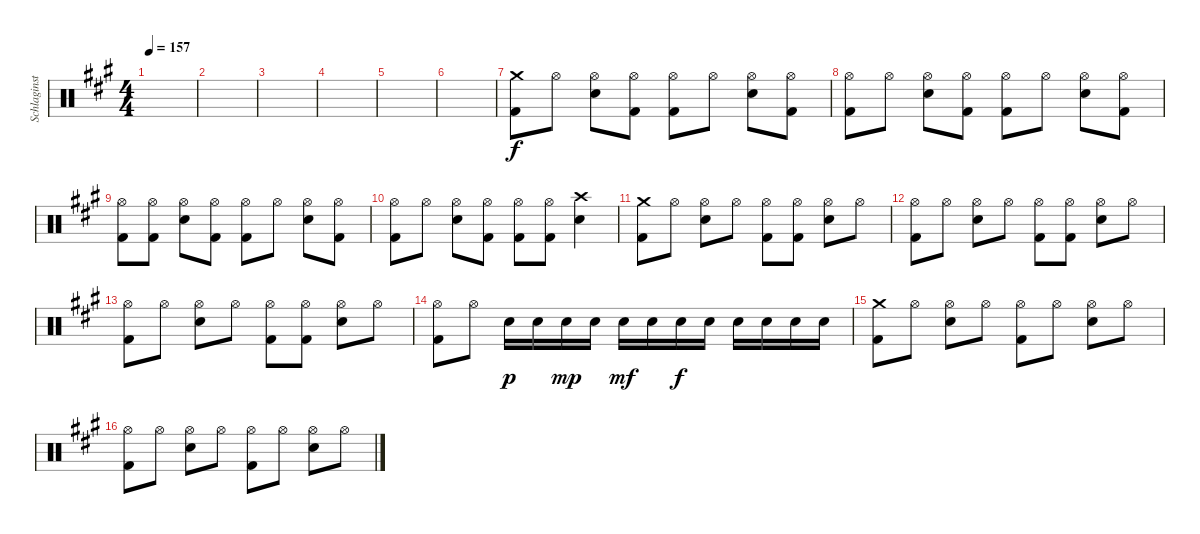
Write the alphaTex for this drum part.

\track ("Schlaginstrumente - Auswahl" "Schlaginst") {instrument percussion}
\staff {score}
\articulation defaults
\ts (4 4)
\tempo 157
\clef neutral
\ks f#minor
|
|
|
|
|
|
("Crash medium (hit)" "Kick (hit) 2").8 "Hi-Hat (open)".8 ("Hi-Hat (open)" "Electric Snare (hit)").8 ("Hi-Hat (open)" "Kick (hit) 2").8 ("Hi-Hat (open)" "Kick (hit) 2").8 "Hi-Hat (open)".8 ("Hi-Hat (open)" "Electric Snare (hit)").8 ("Hi-Hat (open)" "Kick (hit) 2").8 |
("Hi-Hat (open)" "Kick (hit) 2").8 "Hi-Hat (open)".8 ("Hi-Hat (open)" "Electric Snare (hit)").8 ("Hi-Hat (open)" "Kick (hit) 2").8 ("Hi-Hat (open)" "Kick (hit) 2").8 "Hi-Hat (open)".8 ("Hi-Hat (open)" "Electric Snare (hit)").8 ("Hi-Hat (open)" "Kick (hit) 2").8 |
("Hi-Hat (open)" "Kick (hit) 2").8 ("Hi-Hat (open)" "Kick (hit) 2").8 ("Hi-Hat (open)" "Electric Snare (hit)").8 ("Hi-Hat (open)" "Kick (hit) 2").8 ("Hi-Hat (open)" "Kick (hit) 2").8 "Hi-Hat (open)".8 ("Hi-Hat (open)" "Electric Snare (hit)").8 ("Hi-Hat (open)" "Kick (hit) 2").8 |
("Hi-Hat (open)" "Kick (hit) 2").8 "Hi-Hat (open)".8 ("Hi-Hat (open)" "Electric Snare (hit)").8 ("Hi-Hat (open)" "Kick (hit) 2").8 ("Hi-Hat (open)" "Kick (hit) 2").8 ("Hi-Hat (open)" "Kick (hit) 2").8 ("Crash high (hit)" "Electric Snare (hit)").4 |
("Crash medium (hit)" "Kick (hit) 2").8 "Hi-Hat (open)".8 ("Hi-Hat (open)" "Electric Snare (hit)").8 "Hi-Hat (open)".8 ("Hi-Hat (open)" "Kick (hit) 2").8 ("Hi-Hat (open)" "Kick (hit) 2").8 ("Hi-Hat (open)" "Electric Snare (hit)").8 "Hi-Hat (open)".8 |
("Hi-Hat (open)" "Kick (hit) 2").8 "Hi-Hat (open)".8 ("Hi-Hat (open)" "Electric Snare (hit)").8 "Hi-Hat (open)".8 ("Hi-Hat (open)" "Kick (hit) 2").8 ("Hi-Hat (open)" "Kick (hit) 2").8 ("Hi-Hat (open)" "Electric Snare (hit)").8 "Hi-Hat (open)".8 |
("Hi-Hat (open)" "Kick (hit) 2").8 "Hi-Hat (open)".8 ("Hi-Hat (open)" "Electric Snare (hit)").8 "Hi-Hat (open)".8 ("Hi-Hat (open)" "Kick (hit) 2").8 ("Hi-Hat (open)" "Kick (hit) 2").8 ("Hi-Hat (open)" "Electric Snare (hit)").8 "Hi-Hat (open)".8 |
("Hi-Hat (open)" "Kick (hit) 2").8 "Hi-Hat (open)".8 "Electric Snare (hit)".16{dy p} "Electric Snare (hit)".16 "Electric Snare (hit)".16{dy mp} "Electric Snare (hit)".16 "Electric Snare (hit)".16{dy mf} "Electric Snare (hit)".16 "Electric Snare (hit)".16{dy f} "Electric Snare (hit)".16 "Electric Snare (hit)".16 "Electric Snare (hit)".16 "Electric Snare (hit)".16 "Electric Snare (hit)".16 |
("Crash medium (hit)" "Kick (hit) 2").8 "Hi-Hat (open)".8 ("Hi-Hat (open)" "Electric Snare (hit)").8 "Hi-Hat (open)".8 ("Hi-Hat (open)" "Kick (hit) 2").8 "Hi-Hat (open)".8 ("Hi-Hat (open)" "Electric Snare (hit)").8 "Hi-Hat (open)".8 |
("Hi-Hat (open)" "Kick (hit) 2").8 "Hi-Hat (open)".8 ("Hi-Hat (open)" "Electric Snare (hit)").8 "Hi-Hat (open)".8 ("Hi-Hat (open)" "Kick (hit) 2").8 "Hi-Hat (open)".8 ("Hi-Hat (open)" "Electric Snare (hit)").8 "Hi-Hat (open)".8
